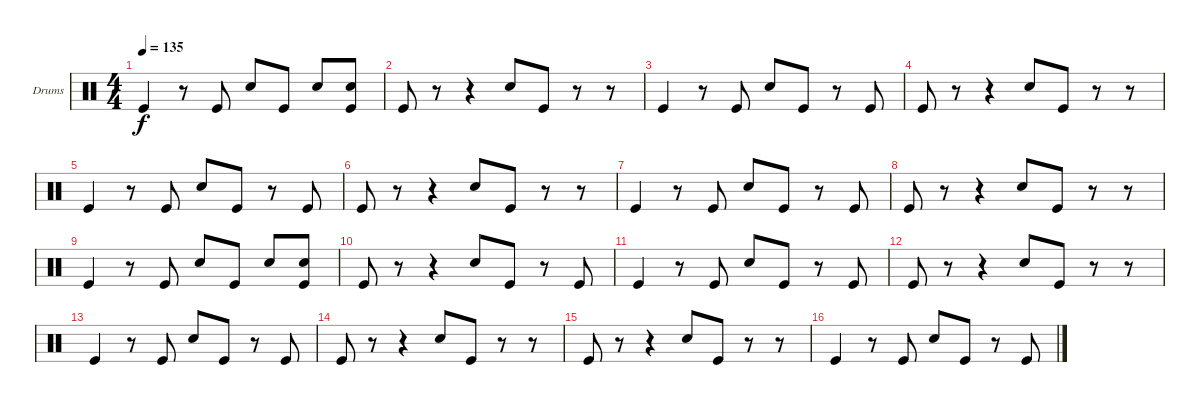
\bracketExtendMode groupsimilarinstruments
\firstSystemTrackNameOrientation horizontal
\otherSystemsTrackNameOrientation horizontal
\track ("Drumkit" "Drums") {instrument percussion}
\staff {score}
\articulation defaults
\ts (4 4)
\tempo 135
\clef neutral
\ks c "Kick (hit)".4{dy f}
r.8 "Kick (hit)".8 "Snare (hit) 2".8 "Kick (hit)".8 "Snare (hit) 2".8 ("Snare (hit) 2" "Kick (hit)").8 |
"Kick (hit)".8 r.8 r.4 "Snare (hit) 2".8 "Kick (hit)".8 r.8 r.8 |
"Kick (hit)".4 r.8 "Kick (hit)".8 "Snare (hit) 2".8 "Kick (hit)".8 r.8 "Kick (hit)".8 |
"Kick (hit)".8 r.8 r.4 "Snare (hit) 2".8 "Kick (hit)".8 r.8 r.8 |
"Kick (hit)".4 r.8 "Kick (hit)".8 "Snare (hit) 2".8 "Kick (hit)".8 r.8 "Kick (hit)".8 |
"Kick (hit)".8 r.8 r.4 "Snare (hit) 2".8 "Kick (hit)".8 r.8 r.8 |
"Kick (hit)".4 r.8 "Kick (hit)".8 "Snare (hit) 2".8 "Kick (hit)".8 r.8 "Kick (hit)".8 |
"Kick (hit)".8 r.8 r.4 "Snare (hit) 2".8 "Kick (hit)".8 r.8 r.8 |
"Kick (hit)".4 r.8 "Kick (hit)".8 "Snare (hit) 2".8 "Kick (hit)".8 "Snare (hit) 2".8 ("Snare (hit) 2" "Kick (hit)").8 |
"Kick (hit)".8 r.8 r.4 "Snare (hit) 2".8 "Kick (hit)".8 r.8 "Kick (hit)".8 |
"Kick (hit)".4 r.8 "Kick (hit)".8 "Snare (hit) 2".8 "Kick (hit)".8 r.8 "Kick (hit)".8 |
"Kick (hit)".8 r.8 r.4 "Snare (hit) 2".8 "Kick (hit)".8 r.8 r.8 |
"Kick (hit)".4 r.8 "Kick (hit)".8 "Snare (hit) 2".8 "Kick (hit)".8 r.8 "Kick (hit)".8 |
"Kick (hit)".8 r.8 r.4 "Snare (hit) 2".8 "Kick (hit)".8 r.8 r.8 |
"Kick (hit)".8 r.8 r.4 "Snare (hit) 2".8 "Kick (hit)".8 r.8 r.8 |
"Kick (hit)".4 r.8 "Kick (hit)".8 "Snare (hit) 2".8 "Kick (hit)".8 r.8 "Kick (hit)".8
